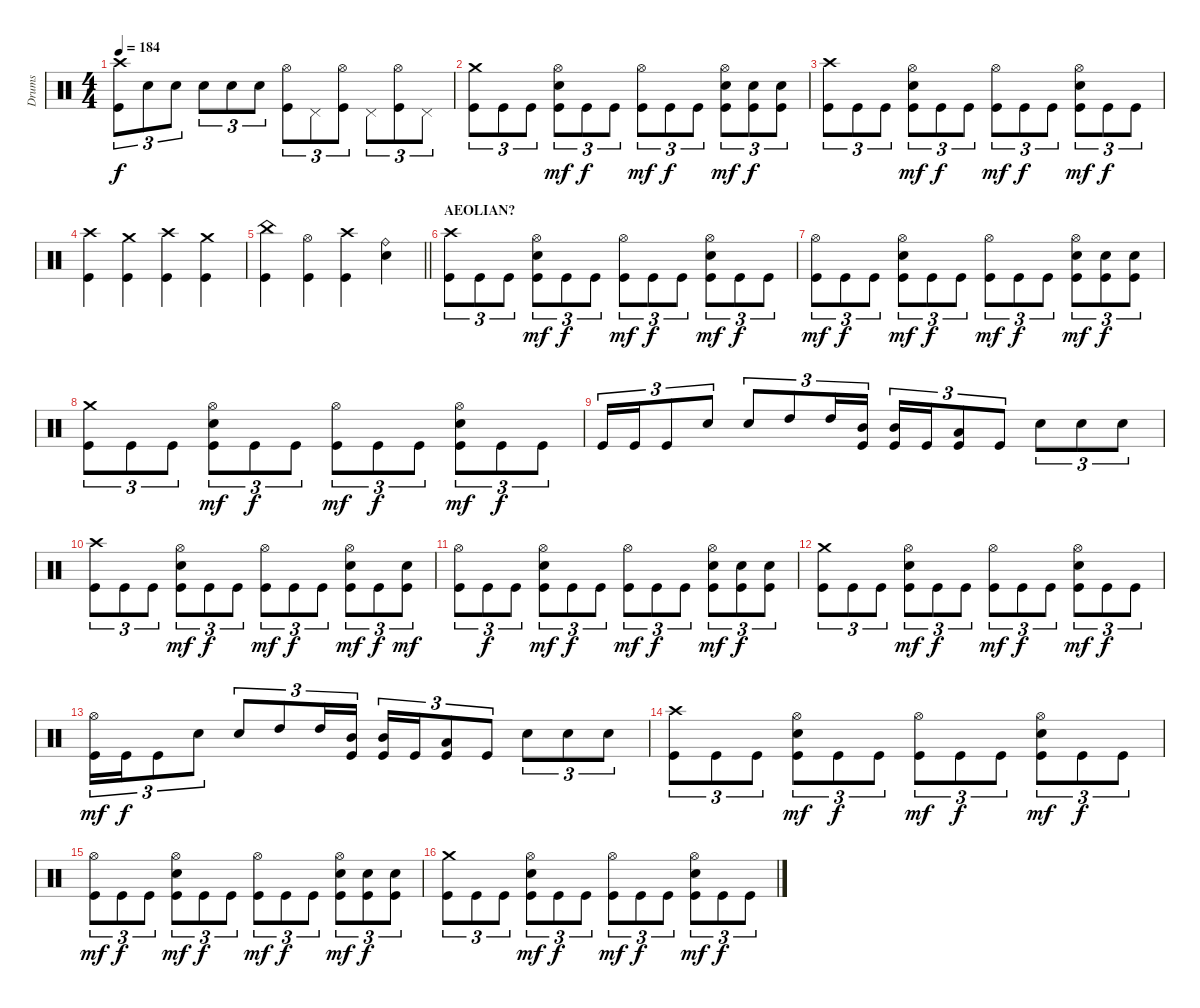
\track ("Drums" "Drums") {instrument percussion}
\staff {score}
\articulation defaults
\ts (4 4)
\tempo 184
\clef neutral
\ks c
("Crash high (hit)" "Kick (hit)").8{tu (3 2) dy f} "Electric Snare (hit)".8{tu (3 2)} "Electric Snare (hit)".8{tu (3 2)} "Electric Snare (hit)".8{tu (3 2)} "Electric Snare (hit)".8{tu (3 2)} "Electric Snare (hit)".8{tu (3 2)} ("Hi-Hat (open)" "Kick (hit)").8{tu (3 2)} "Pedal Hi-Hat (hit)".8{tu (3 2)} ("Hi-Hat (open)" "Kick (hit)").8{tu (3 2)} "Pedal Hi-Hat (hit)".8{tu (3 2)} ("Hi-Hat (open)" "Kick (hit)").8{tu (3 2)} "Pedal Hi-Hat (hit)".8{tu (3 2)} |
("Crash medium (hit)" "Kick (hit)").8{tu (3 2)} "Kick (hit)".8{tu (3 2)} "Kick (hit)".8{tu (3 2)} ("Hi-Hat (open)" "Electric Snare (hit)" "Kick (hit)").8{tu (3 2) dy mf} "Kick (hit)".8{tu (3 2) dy f} "Kick (hit)".8{tu (3 2)} ("Hi-Hat (open)" "Kick (hit)").8{tu (3 2) dy mf} "Kick (hit)".8{tu (3 2) dy f} "Kick (hit)".8{tu (3 2)} ("Hi-Hat (open)" "Electric Snare (hit)" "Kick (hit)").8{tu (3 2) dy mf} ("Electric Snare (hit)" "Kick (hit)").8{tu (3 2) dy f} ("Electric Snare (hit)" "Kick (hit)").8{tu (3 2)} |
("Crash high (hit)" "Kick (hit)").8{tu (3 2)} "Kick (hit)".8{tu (3 2)} "Kick (hit)".8{tu (3 2)} ("Hi-Hat (open)" "Electric Snare (hit)" "Kick (hit)").8{tu (3 2) dy mf} "Kick (hit)".8{tu (3 2) dy f} "Kick (hit)".8{tu (3 2)} ("Hi-Hat (open)" "Kick (hit)").8{tu (3 2) dy mf} "Kick (hit)".8{tu (3 2) dy f} "Kick (hit)".8{tu (3 2)} ("Hi-Hat (open)" "Electric Snare (hit)" "Kick (hit)").8{tu (3 2) dy mf} "Kick (hit)".8{tu (3 2) dy f} "Kick (hit)".8{tu (3 2)} |
("Crash high (hit)" "Kick (hit)").4 ("Crash medium (hit)" "Kick (hit)").4 ("Crash high (hit)" "Kick (hit)").4 ("Crash medium (hit)" "Kick (hit)").4 |
\barLineRight lightlight
("China (hit)" "Kick (hit)").4 ("Hi-Hat (open)" "Kick (hit)").4 ("Crash high (hit)" "Kick (hit)").4 ("Ride (bell)" "Electric Snare (hit)").4 |
\section ("" "AEOLIAN?")
("Crash high (hit)" "Kick (hit)").8{tu (3 2)} "Kick (hit)".8{tu (3 2)} "Kick (hit)".8{tu (3 2)} ("Hi-Hat (open)" "Electric Snare (hit)" "Kick (hit)").8{tu (3 2) dy mf} "Kick (hit)".8{tu (3 2) dy f} "Kick (hit)".8{tu (3 2)} ("Hi-Hat (open)" "Kick (hit)").8{tu (3 2) dy mf} "Kick (hit)".8{tu (3 2) dy f} "Kick (hit)".8{tu (3 2)} ("Hi-Hat (open)" "Electric Snare (hit)" "Kick (hit)").8{tu (3 2) dy mf} "Kick (hit)".8{tu (3 2) dy f} "Kick (hit)".8{tu (3 2)} |
("Hi-Hat (open)" "Kick (hit)").8{tu (3 2) dy mf} "Kick (hit)".8{tu (3 2) dy f} "Kick (hit)".8{tu (3 2)} ("Hi-Hat (open)" "Electric Snare (hit)" "Kick (hit)").8{tu (3 2) dy mf} "Kick (hit)".8{tu (3 2) dy f} "Kick (hit)".8{tu (3 2)} ("Hi-Hat (open)" "Kick (hit)").8{tu (3 2) dy mf} "Kick (hit)".8{tu (3 2) dy f} "Kick (hit)".8{tu (3 2)} ("Hi-Hat (open)" "Electric Snare (hit)" "Kick (hit)").8{tu (3 2) dy mf} ("Electric Snare (hit)" "Kick (hit)").8{tu (3 2) dy f} ("Electric Snare (hit)" "Kick (hit)").8{tu (3 2)} |
("Crash medium (hit)" "Kick (hit)").8{tu (3 2)} "Kick (hit)".8{tu (3 2)} "Kick (hit)".8{tu (3 2)} ("Hi-Hat (open)" "Electric Snare (hit)" "Kick (hit)").8{tu (3 2) dy mf} "Kick (hit)".8{tu (3 2) dy f} "Kick (hit)".8{tu (3 2)} ("Hi-Hat (open)" "Kick (hit)").8{tu (3 2) dy mf} "Kick (hit)".8{tu (3 2) dy f} "Kick (hit)".8{tu (3 2)} ("Hi-Hat (open)" "Electric Snare (hit)" "Kick (hit)").8{tu (3 2) dy mf} "Kick (hit)".8{tu (3 2) dy f} "Kick (hit)".8{tu (3 2)} |
"Kick (hit)".16{tu (3 2)} "Kick (hit)".16{tu (3 2)} "Kick (hit)".8{tu (3 2)} "Electric Snare (hit)".8{tu (3 2)} "Electric Snare (hit)".8{tu (3 2)} "High Tom (hit)".8{tu (3 2)} "High Tom (hit)".16{tu (3 2)} ("Mid Tom (hit)" "Kick (hit)").16{tu (3 2)} ("Mid Tom (hit)" "Kick (hit)").16{tu (3 2)} "Kick (hit)".16{tu (3 2)} ("Low Tom (hit)" "Kick (hit)").8{tu (3 2)} "Kick (hit)".8{tu (3 2)} "Electric Snare (hit)".8{tu (3 2)} "Electric Snare (hit)".8{tu (3 2)} "Electric Snare (hit)".8{tu (3 2)} |
("Crash high (hit)" "Kick (hit)").8{tu (3 2)} "Kick (hit)".8{tu (3 2)} "Kick (hit)".8{tu (3 2)} ("Hi-Hat (open)" "Electric Snare (hit)" "Kick (hit)").8{tu (3 2) dy mf} "Kick (hit)".8{tu (3 2) dy f} "Kick (hit)".8{tu (3 2)} ("Hi-Hat (open)" "Kick (hit)").8{tu (3 2) dy mf} "Kick (hit)".8{tu (3 2) dy f} "Kick (hit)".8{tu (3 2)} ("Hi-Hat (open)" "Electric Snare (hit)" "Kick (hit)").8{tu (3 2) dy mf} "Kick (hit)".8{tu (3 2) dy f} ("Electric Snare (hit)" "Kick (hit)").8{tu (3 2) dy mf} |
("Hi-Hat (open)" "Kick (hit)").8{tu (3 2)} "Kick (hit)".8{tu (3 2) dy f} "Kick (hit)".8{tu (3 2)} ("Hi-Hat (open)" "Electric Snare (hit)" "Kick (hit)").8{tu (3 2) dy mf} "Kick (hit)".8{tu (3 2) dy f} "Kick (hit)".8{tu (3 2)} ("Hi-Hat (open)" "Kick (hit)").8{tu (3 2) dy mf} "Kick (hit)".8{tu (3 2) dy f} "Kick (hit)".8{tu (3 2)} ("Hi-Hat (open)" "Electric Snare (hit)" "Kick (hit)").8{tu (3 2) dy mf} ("Electric Snare (hit)" "Kick (hit)").8{tu (3 2) dy f} ("Electric Snare (hit)" "Kick (hit)").8{tu (3 2)} |
("Crash medium (hit)" "Kick (hit)").8{tu (3 2)} "Kick (hit)".8{tu (3 2)} "Kick (hit)".8{tu (3 2)} ("Hi-Hat (open)" "Electric Snare (hit)" "Kick (hit)").8{tu (3 2) dy mf} "Kick (hit)".8{tu (3 2) dy f} "Kick (hit)".8{tu (3 2)} ("Hi-Hat (open)" "Kick (hit)").8{tu (3 2) dy mf} "Kick (hit)".8{tu (3 2) dy f} "Kick (hit)".8{tu (3 2)} ("Hi-Hat (open)" "Electric Snare (hit)" "Kick (hit)").8{tu (3 2) dy mf} "Kick (hit)".8{tu (3 2) dy f} "Kick (hit)".8{tu (3 2)} |
("Hi-Hat (open)" "Kick (hit)").16{tu (3 2) dy mf} "Kick (hit)".16{tu (3 2) dy f} "Kick (hit)".8{tu (3 2)} "Electric Snare (hit)".8{tu (3 2)} "Electric Snare (hit)".8{tu (3 2)} "High Tom (hit)".8{tu (3 2)} "High Tom (hit)".16{tu (3 2)} ("Mid Tom (hit)" "Kick (hit)").16{tu (3 2)} ("Mid Tom (hit)" "Kick (hit)").16{tu (3 2)} "Kick (hit)".16{tu (3 2)} ("Low Tom (hit)" "Kick (hit)").8{tu (3 2)} "Kick (hit)".8{tu (3 2)} "Electric Snare (hit)".8{tu (3 2)} "Electric Snare (hit)".8{tu (3 2)} "Electric Snare (hit)".8{tu (3 2)} |
("Crash high (hit)" "Kick (hit)").8{tu (3 2)} "Kick (hit)".8{tu (3 2)} "Kick (hit)".8{tu (3 2)} ("Hi-Hat (open)" "Electric Snare (hit)" "Kick (hit)").8{tu (3 2) dy mf} "Kick (hit)".8{tu (3 2) dy f} "Kick (hit)".8{tu (3 2)} ("Hi-Hat (open)" "Kick (hit)").8{tu (3 2) dy mf} "Kick (hit)".8{tu (3 2) dy f} "Kick (hit)".8{tu (3 2)} ("Hi-Hat (open)" "Electric Snare (hit)" "Kick (hit)").8{tu (3 2) dy mf} "Kick (hit)".8{tu (3 2) dy f} "Kick (hit)".8{tu (3 2)} |
("Hi-Hat (open)" "Kick (hit)").8{tu (3 2) dy mf} "Kick (hit)".8{tu (3 2) dy f} "Kick (hit)".8{tu (3 2)} ("Hi-Hat (open)" "Electric Snare (hit)" "Kick (hit)").8{tu (3 2) dy mf} "Kick (hit)".8{tu (3 2) dy f} "Kick (hit)".8{tu (3 2)} ("Hi-Hat (open)" "Kick (hit)").8{tu (3 2) dy mf} "Kick (hit)".8{tu (3 2) dy f} "Kick (hit)".8{tu (3 2)} ("Hi-Hat (open)" "Electric Snare (hit)" "Kick (hit)").8{tu (3 2) dy mf} ("Electric Snare (hit)" "Kick (hit)").8{tu (3 2) dy f} ("Electric Snare (hit)" "Kick (hit)").8{tu (3 2)} |
("Crash medium (hit)" "Kick (hit)").8{tu (3 2)} "Kick (hit)".8{tu (3 2)} "Kick (hit)".8{tu (3 2)} ("Hi-Hat (open)" "Electric Snare (hit)" "Kick (hit)").8{tu (3 2) dy mf} "Kick (hit)".8{tu (3 2) dy f} "Kick (hit)".8{tu (3 2)} ("Hi-Hat (open)" "Kick (hit)").8{tu (3 2) dy mf} "Kick (hit)".8{tu (3 2) dy f} "Kick (hit)".8{tu (3 2)} ("Hi-Hat (open)" "Electric Snare (hit)" "Kick (hit)").8{tu (3 2) dy mf} "Kick (hit)".8{tu (3 2) dy f} "Kick (hit)".8{tu (3 2)}
